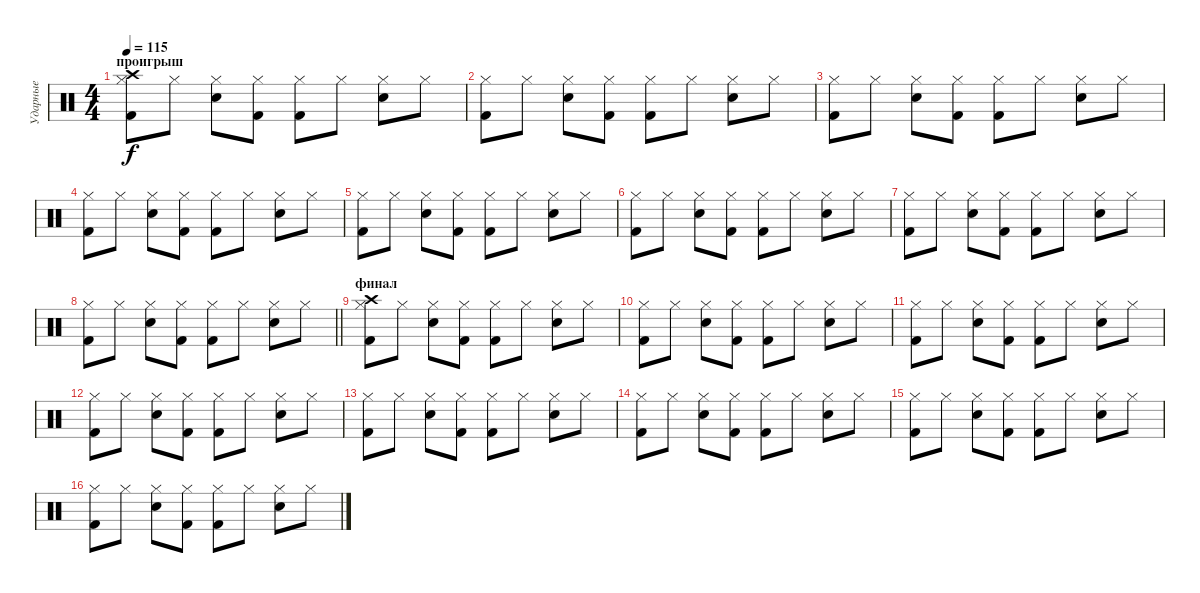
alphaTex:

\track ("Ударные" "Ударные") {instrument percussion}
\staff {score}
\articulation defaults
\ts (4 4)
\section ("" "проигрыш")
\tempo 115
\clef neutral
\ks c
("Hi-Hat (closed)" "Kick (hit) 2" "Crash high (hit)").8{dy f} "Hi-Hat (closed)".8 ("Hi-Hat (closed)" "Snare (hit) 2").8 ("Hi-Hat (closed)" "Kick (hit) 2").8 ("Hi-Hat (closed)" "Kick (hit) 2").8 "Hi-Hat (closed)".8 ("Hi-Hat (closed)" "Snare (hit) 2").8 "Hi-Hat (closed)".8 |
("Hi-Hat (closed)" "Kick (hit) 2").8 "Hi-Hat (closed)".8 ("Hi-Hat (closed)" "Snare (hit) 2").8 ("Hi-Hat (closed)" "Kick (hit) 2").8 ("Hi-Hat (closed)" "Kick (hit) 2").8 "Hi-Hat (closed)".8 ("Hi-Hat (closed)" "Snare (hit) 2").8 "Hi-Hat (closed)".8 |
("Hi-Hat (closed)" "Kick (hit) 2").8 "Hi-Hat (closed)".8 ("Hi-Hat (closed)" "Snare (hit) 2").8 ("Hi-Hat (closed)" "Kick (hit) 2").8 ("Hi-Hat (closed)" "Kick (hit) 2").8 "Hi-Hat (closed)".8 ("Hi-Hat (closed)" "Snare (hit) 2").8 "Hi-Hat (closed)".8 |
("Hi-Hat (closed)" "Kick (hit) 2").8 "Hi-Hat (closed)".8 ("Hi-Hat (closed)" "Snare (hit) 2").8 ("Hi-Hat (closed)" "Kick (hit) 2").8 ("Hi-Hat (closed)" "Kick (hit) 2").8 "Hi-Hat (closed)".8 ("Hi-Hat (closed)" "Snare (hit) 2").8 "Hi-Hat (closed)".8 |
("Hi-Hat (closed)" "Kick (hit) 2").8 "Hi-Hat (closed)".8 ("Hi-Hat (closed)" "Snare (hit) 2").8 ("Hi-Hat (closed)" "Kick (hit) 2").8 ("Hi-Hat (closed)" "Kick (hit) 2").8 "Hi-Hat (closed)".8 ("Hi-Hat (closed)" "Snare (hit) 2").8 "Hi-Hat (closed)".8 |
("Hi-Hat (closed)" "Kick (hit) 2").8 "Hi-Hat (closed)".8 ("Hi-Hat (closed)" "Snare (hit) 2").8 ("Hi-Hat (closed)" "Kick (hit) 2").8 ("Hi-Hat (closed)" "Kick (hit) 2").8 "Hi-Hat (closed)".8 ("Hi-Hat (closed)" "Snare (hit) 2").8 "Hi-Hat (closed)".8 |
("Hi-Hat (closed)" "Kick (hit) 2").8 "Hi-Hat (closed)".8 ("Hi-Hat (closed)" "Snare (hit) 2").8 ("Hi-Hat (closed)" "Kick (hit) 2").8 ("Hi-Hat (closed)" "Kick (hit) 2").8 "Hi-Hat (closed)".8 ("Hi-Hat (closed)" "Snare (hit) 2").8 "Hi-Hat (closed)".8 |
\barLineRight lightlight
("Hi-Hat (closed)" "Kick (hit) 2").8 "Hi-Hat (closed)".8 ("Hi-Hat (closed)" "Snare (hit) 2").8 ("Hi-Hat (closed)" "Kick (hit) 2").8 ("Hi-Hat (closed)" "Kick (hit) 2").8 "Hi-Hat (closed)".8 ("Hi-Hat (closed)" "Snare (hit) 2").8 "Hi-Hat (closed)".8 |
\section ("" "финал")
("Hi-Hat (closed)" "Kick (hit) 2" "Crash high (hit)").8 "Hi-Hat (closed)".8 ("Hi-Hat (closed)" "Snare (hit) 2").8 ("Hi-Hat (closed)" "Kick (hit) 2").8 ("Hi-Hat (closed)" "Kick (hit) 2").8 "Hi-Hat (closed)".8 ("Hi-Hat (closed)" "Snare (hit) 2").8 "Hi-Hat (closed)".8 |
("Hi-Hat (closed)" "Kick (hit) 2").8 "Hi-Hat (closed)".8 ("Hi-Hat (closed)" "Snare (hit) 2").8 ("Hi-Hat (closed)" "Kick (hit) 2").8 ("Hi-Hat (closed)" "Kick (hit) 2").8 "Hi-Hat (closed)".8 ("Hi-Hat (closed)" "Snare (hit) 2").8 "Hi-Hat (closed)".8 |
("Hi-Hat (closed)" "Kick (hit) 2").8 "Hi-Hat (closed)".8 ("Hi-Hat (closed)" "Snare (hit) 2").8 ("Hi-Hat (closed)" "Kick (hit) 2").8 ("Hi-Hat (closed)" "Kick (hit) 2").8 "Hi-Hat (closed)".8 ("Hi-Hat (closed)" "Snare (hit) 2").8 "Hi-Hat (closed)".8 |
("Hi-Hat (closed)" "Kick (hit) 2").8 "Hi-Hat (closed)".8 ("Hi-Hat (closed)" "Snare (hit) 2").8 ("Hi-Hat (closed)" "Kick (hit) 2").8 ("Hi-Hat (closed)" "Kick (hit) 2").8 "Hi-Hat (closed)".8 ("Hi-Hat (closed)" "Snare (hit) 2").8 "Hi-Hat (closed)".8 |
("Hi-Hat (closed)" "Kick (hit) 2").8 "Hi-Hat (closed)".8 ("Hi-Hat (closed)" "Snare (hit) 2").8 ("Hi-Hat (closed)" "Kick (hit) 2").8 ("Hi-Hat (closed)" "Kick (hit) 2").8 "Hi-Hat (closed)".8 ("Hi-Hat (closed)" "Snare (hit) 2").8 "Hi-Hat (closed)".8 |
("Hi-Hat (closed)" "Kick (hit) 2").8 "Hi-Hat (closed)".8 ("Hi-Hat (closed)" "Snare (hit) 2").8 ("Hi-Hat (closed)" "Kick (hit) 2").8 ("Hi-Hat (closed)" "Kick (hit) 2").8 "Hi-Hat (closed)".8 ("Hi-Hat (closed)" "Snare (hit) 2").8 "Hi-Hat (closed)".8 |
("Hi-Hat (closed)" "Kick (hit) 2").8 "Hi-Hat (closed)".8 ("Hi-Hat (closed)" "Snare (hit) 2").8 ("Hi-Hat (closed)" "Kick (hit) 2").8 ("Hi-Hat (closed)" "Kick (hit) 2").8 "Hi-Hat (closed)".8 ("Hi-Hat (closed)" "Snare (hit) 2").8 "Hi-Hat (closed)".8 |
("Hi-Hat (closed)" "Kick (hit) 2").8 "Hi-Hat (closed)".8 ("Hi-Hat (closed)" "Snare (hit) 2").8 ("Hi-Hat (closed)" "Kick (hit) 2").8 ("Hi-Hat (closed)" "Kick (hit) 2").8 "Hi-Hat (closed)".8 ("Hi-Hat (closed)" "Snare (hit) 2").8 "Hi-Hat (closed)".8
